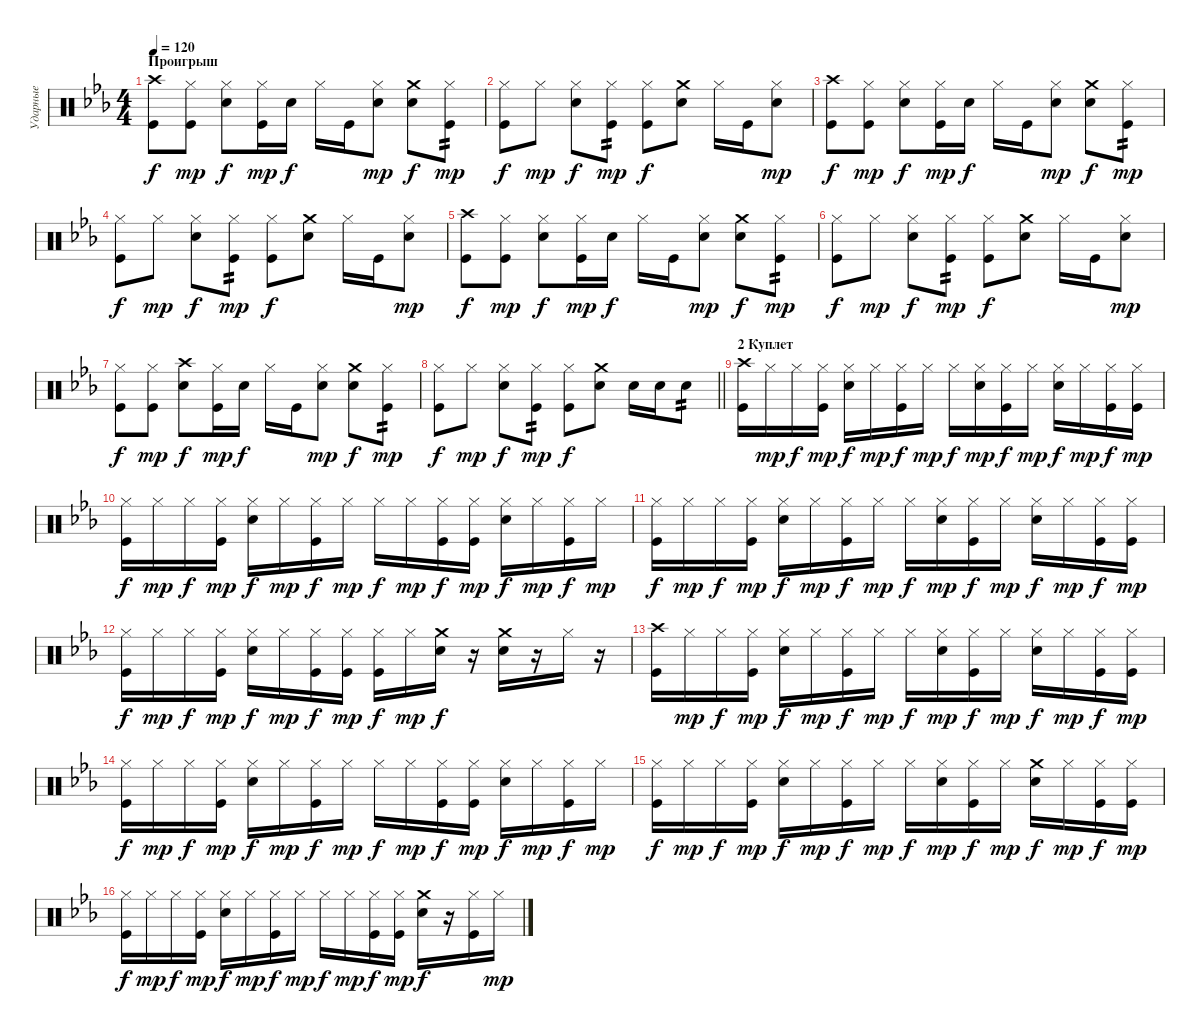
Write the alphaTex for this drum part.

\track ("Ударные" "Ударные") {instrument percussion}
\staff {score}
\articulation defaults
\ts (4 4)
\section ("" "Проигрыш")
\tempo 120
\clef neutral
\ks cminor
("Crash high (hit)" "Kick (hit)").8{dy f} ("Hi-Hat (closed)" "Kick (hit)").8{dy mp} ("Hi-Hat (closed)" "Snare (hit) 2").8{dy f} ("Hi-Hat (closed)" "Kick (hit)").16{dy mp} "Snare (hit) 2".16{dy f} "Hi-Hat (closed)".16 "Kick (hit)".16 ("Hi-Hat (closed)" "Snare (hit) 2").8{dy mp} ("Crash medium (hit)" "Snare (hit) 2").8{dy f} ("Hi-Hat (closed)" "Kick (hit)").8{tp 2 dy mp} |
("Hi-Hat (closed)" "Kick (hit)").8{dy f} "Hi-Hat (closed)".8{dy mp} ("Hi-Hat (closed)" "Snare (hit) 2").8{dy f} ("Hi-Hat (closed)" "Kick (hit)").8{tp 2 dy mp} ("Hi-Hat (closed)" "Kick (hit)").8{dy f} ("Crash medium (hit)" "Snare (hit) 2").8 "Hi-Hat (closed)".16 "Kick (hit)".16 ("Hi-Hat (closed)" "Snare (hit) 2").8{dy mp} |
("Crash high (hit)" "Kick (hit)").8{dy f} ("Hi-Hat (closed)" "Kick (hit)").8{dy mp} ("Hi-Hat (closed)" "Snare (hit) 2").8{dy f} ("Hi-Hat (closed)" "Kick (hit)").16{dy mp} "Snare (hit) 2".16{dy f} "Hi-Hat (closed)".16 "Kick (hit)".16 ("Hi-Hat (closed)" "Snare (hit) 2").8{dy mp} ("Crash medium (hit)" "Snare (hit) 2").8{dy f} ("Hi-Hat (closed)" "Kick (hit)").8{tp 2 dy mp} |
("Hi-Hat (closed)" "Kick (hit)").8{dy f} "Hi-Hat (closed)".8{dy mp} ("Hi-Hat (closed)" "Snare (hit) 2").8{dy f} ("Hi-Hat (closed)" "Kick (hit)").8{tp 2 dy mp} ("Hi-Hat (closed)" "Kick (hit)").8{dy f} ("Crash medium (hit)" "Snare (hit) 2").8 "Hi-Hat (closed)".16 "Kick (hit)".16 ("Hi-Hat (closed)" "Snare (hit) 2").8{dy mp} |
("Crash high (hit)" "Kick (hit)").8{dy f} ("Hi-Hat (closed)" "Kick (hit)").8{dy mp} ("Hi-Hat (closed)" "Snare (hit) 2").8{dy f} ("Hi-Hat (closed)" "Kick (hit)").16{dy mp} "Snare (hit) 2".16{dy f} "Hi-Hat (closed)".16 "Kick (hit)".16 ("Hi-Hat (closed)" "Snare (hit) 2").8{dy mp} ("Crash medium (hit)" "Snare (hit) 2").8{dy f} ("Hi-Hat (closed)" "Kick (hit)").8{tp 2 dy mp} |
("Hi-Hat (closed)" "Kick (hit)").8{dy f} "Hi-Hat (closed)".8{dy mp} ("Hi-Hat (closed)" "Snare (hit) 2").8{dy f} ("Hi-Hat (closed)" "Kick (hit)").8{tp 2 dy mp} ("Hi-Hat (closed)" "Kick (hit)").8{dy f} ("Crash medium (hit)" "Snare (hit) 2").8 "Hi-Hat (closed)".16 "Kick (hit)".16 ("Hi-Hat (closed)" "Snare (hit) 2").8{dy mp} |
("Hi-Hat (closed)" "Kick (hit)").8{dy f} ("Hi-Hat (closed)" "Kick (hit)").8{dy mp} ("Crash high (hit)" "Snare (hit) 2").8{dy f} ("Hi-Hat (closed)" "Kick (hit)").16{dy mp} "Snare (hit) 2".16{dy f} "Hi-Hat (closed)".16 "Kick (hit)".16 ("Hi-Hat (closed)" "Snare (hit) 2").8{dy mp} ("Crash medium (hit)" "Snare (hit) 2").8{dy f} ("Hi-Hat (closed)" "Kick (hit)").8{tp 2 dy mp} |
\barLineRight lightlight
("Hi-Hat (closed)" "Kick (hit)").8{dy f} "Hi-Hat (closed)".8{dy mp} ("Hi-Hat (closed)" "Snare (hit) 2").8{dy f} ("Hi-Hat (closed)" "Kick (hit)").8{tp 2 dy mp} ("Hi-Hat (closed)" "Kick (hit)").8{dy f} ("Crash medium (hit)" "Snare (hit) 2").8 "Snare (hit) 2".16 "Snare (hit) 2".16 "Snare (hit) 2".8{tp 2} |
\section ("" "2 Куплет")
("Crash high (hit)" "Kick (hit)").16 "Hi-Hat (closed)".16{dy mp} "Hi-Hat (closed)".16{dy f} ("Hi-Hat (closed)" "Kick (hit)").16{dy mp} ("Hi-Hat (closed)" "Snare (hit) 2").16{dy f} "Hi-Hat (closed)".16{dy mp} ("Hi-Hat (closed)" "Kick (hit)").16{dy f} "Hi-Hat (closed)".16{dy mp} "Hi-Hat (closed)".16{dy f} ("Hi-Hat (closed)" "Snare (hit) 2").16{dy mp} ("Hi-Hat (closed)" "Kick (hit)").16{dy f} "Hi-Hat (closed)".16{dy mp} ("Hi-Hat (closed)" "Snare (hit) 2").16{dy f} "Hi-Hat (closed)".16{dy mp} ("Hi-Hat (closed)" "Kick (hit)").16{dy f} ("Hi-Hat (closed)" "Kick (hit)").16{dy mp} |
("Hi-Hat (closed)" "Kick (hit)").16{dy f} "Hi-Hat (closed)".16{dy mp} "Hi-Hat (closed)".16{dy f} ("Hi-Hat (closed)" "Kick (hit)").16{dy mp} ("Hi-Hat (closed)" "Snare (hit) 2").16{dy f} "Hi-Hat (closed)".16{dy mp} ("Hi-Hat (closed)" "Kick (hit)").16{dy f} "Hi-Hat (closed)".16{dy mp} "Hi-Hat (closed)".16{dy f} "Hi-Hat (closed)".16{dy mp} ("Hi-Hat (closed)" "Kick (hit)").16{dy f} ("Hi-Hat (closed)" "Kick (hit)").16{dy mp} ("Hi-Hat (closed)" "Snare (hit) 2").16{dy f} "Hi-Hat (closed)".16{dy mp} ("Hi-Hat (closed)" "Kick (hit)").16{dy f} "Hi-Hat (closed)".16{dy mp} |
("Hi-Hat (closed)" "Kick (hit)").16{dy f} "Hi-Hat (closed)".16{dy mp} "Hi-Hat (closed)".16{dy f} ("Hi-Hat (closed)" "Kick (hit)").16{dy mp} ("Hi-Hat (closed)" "Snare (hit) 2").16{dy f} "Hi-Hat (closed)".16{dy mp} ("Hi-Hat (closed)" "Kick (hit)").16{dy f} "Hi-Hat (closed)".16{dy mp} "Hi-Hat (closed)".16{dy f} ("Hi-Hat (closed)" "Snare (hit) 2").16{dy mp} ("Hi-Hat (closed)" "Kick (hit)").16{dy f} "Hi-Hat (closed)".16{dy mp} ("Hi-Hat (closed)" "Snare (hit) 2").16{dy f} "Hi-Hat (closed)".16{dy mp} ("Hi-Hat (closed)" "Kick (hit)").16{dy f} ("Hi-Hat (closed)" "Kick (hit)").16{dy mp} |
("Hi-Hat (closed)" "Kick (hit)").16{dy f} "Hi-Hat (closed)".16{dy mp} "Hi-Hat (closed)".16{dy f} ("Hi-Hat (closed)" "Kick (hit)").16{dy mp} ("Hi-Hat (closed)" "Snare (hit) 2").16{dy f} "Hi-Hat (closed)".16{dy mp} ("Hi-Hat (closed)" "Kick (hit)").16{dy f} ("Hi-Hat (closed)" "Kick (hit)").16{dy mp} ("Hi-Hat (closed)" "Kick (hit)").16{dy f} "Hi-Hat (closed)".16{dy mp} ("Crash medium (hit)" "Snare (hit) 2").16{dy f} r.16 ("Crash medium (hit)" "Snare (hit) 2").16 r.16 "Hi-Hat (closed)".16 r.16 |
("Crash high (hit)" "Kick (hit)").16 "Hi-Hat (closed)".16{dy mp} "Hi-Hat (closed)".16{dy f} ("Hi-Hat (closed)" "Kick (hit)").16{dy mp} ("Hi-Hat (closed)" "Snare (hit) 2").16{dy f} "Hi-Hat (closed)".16{dy mp} ("Hi-Hat (closed)" "Kick (hit)").16{dy f} "Hi-Hat (closed)".16{dy mp} "Hi-Hat (closed)".16{dy f} ("Hi-Hat (closed)" "Snare (hit) 2").16{dy mp} ("Hi-Hat (closed)" "Kick (hit)").16{dy f} "Hi-Hat (closed)".16{dy mp} ("Hi-Hat (closed)" "Snare (hit) 2").16{dy f} "Hi-Hat (closed)".16{dy mp} ("Hi-Hat (closed)" "Kick (hit)").16{dy f} ("Hi-Hat (closed)" "Kick (hit)").16{dy mp} |
("Hi-Hat (closed)" "Kick (hit)").16{dy f} "Hi-Hat (closed)".16{dy mp} "Hi-Hat (closed)".16{dy f} ("Hi-Hat (closed)" "Kick (hit)").16{dy mp} ("Hi-Hat (closed)" "Snare (hit) 2").16{dy f} "Hi-Hat (closed)".16{dy mp} ("Hi-Hat (closed)" "Kick (hit)").16{dy f} "Hi-Hat (closed)".16{dy mp} "Hi-Hat (closed)".16{dy f} "Hi-Hat (closed)".16{dy mp} ("Hi-Hat (closed)" "Kick (hit)").16{dy f} ("Hi-Hat (closed)" "Kick (hit)").16{dy mp} ("Hi-Hat (closed)" "Snare (hit) 2").16{dy f} "Hi-Hat (closed)".16{dy mp} ("Hi-Hat (closed)" "Kick (hit)").16{dy f} "Hi-Hat (closed)".16{dy mp} |
("Hi-Hat (closed)" "Kick (hit)").16{dy f} "Hi-Hat (closed)".16{dy mp} "Hi-Hat (closed)".16{dy f} ("Hi-Hat (closed)" "Kick (hit)").16{dy mp} ("Hi-Hat (closed)" "Snare (hit) 2").16{dy f} "Hi-Hat (closed)".16{dy mp} ("Hi-Hat (closed)" "Kick (hit)").16{dy f} "Hi-Hat (closed)".16{dy mp} "Hi-Hat (closed)".16{dy f} ("Hi-Hat (closed)" "Snare (hit) 2").16{dy mp} ("Hi-Hat (closed)" "Kick (hit)").16{dy f} "Hi-Hat (closed)".16{dy mp} ("Crash medium (hit)" "Snare (hit) 2").16{dy f} "Hi-Hat (closed)".16{dy mp} ("Hi-Hat (closed)" "Kick (hit)").16{dy f} ("Hi-Hat (closed)" "Kick (hit)").16{dy mp} |
("Hi-Hat (closed)" "Kick (hit)").16{dy f} "Hi-Hat (closed)".16{dy mp} "Hi-Hat (closed)".16{dy f} ("Hi-Hat (closed)" "Kick (hit)").16{dy mp} ("Hi-Hat (closed)" "Snare (hit) 2").16{dy f} "Hi-Hat (closed)".16{dy mp} ("Hi-Hat (closed)" "Kick (hit)").16{dy f} "Hi-Hat (closed)".16{dy mp} "Hi-Hat (closed)".16{dy f} "Hi-Hat (closed)".16{dy mp} ("Hi-Hat (closed)" "Kick (hit)").16{dy f} ("Hi-Hat (closed)" "Kick (hit)").16{dy mp} ("Crash medium (hit)" "Snare (hit) 2").16{dy f} r.16 ("Hi-Hat (closed)" "Kick (hit)").16 "Hi-Hat (closed)".16{dy mp}
